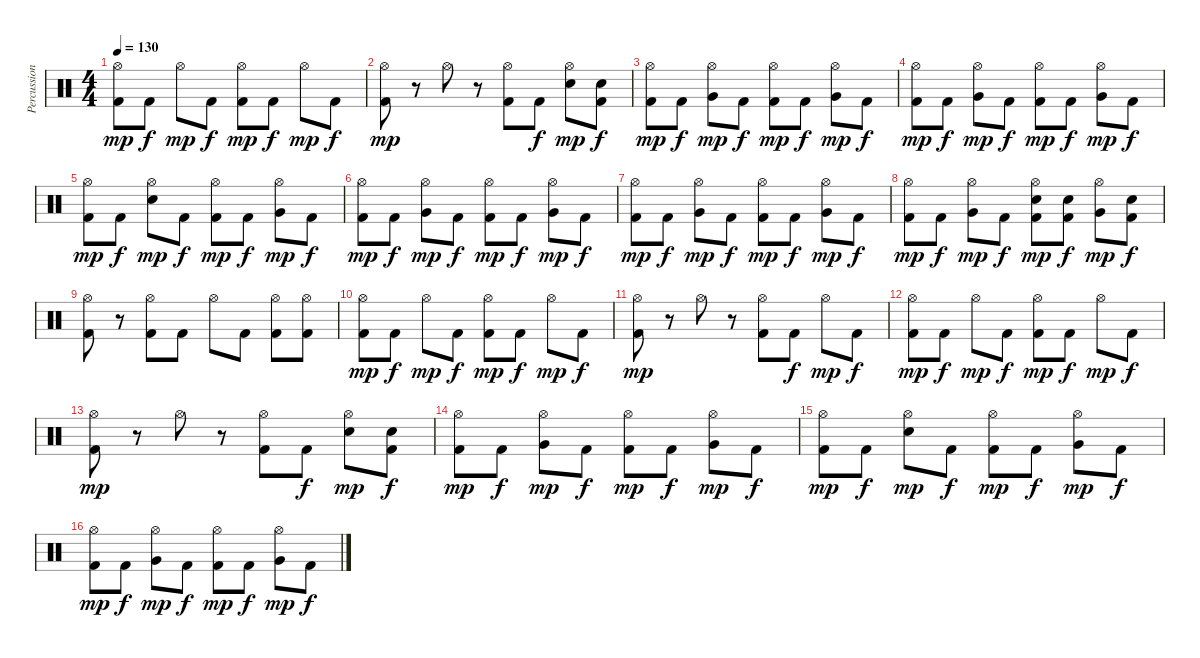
\track ("Percussions" "Percussion") {instrument percussion}
\staff {score}
\articulation defaults
\ts (4 4)
\tempo 130
\clef neutral
\ks c
("Hi-Hat (open)" "Kick (hit) 2").8{dy mp} "Kick (hit) 2".8{dy f} "Hi-Hat (open)".8{dy mp} "Kick (hit) 2".8{dy f} ("Hi-Hat (open)" "Kick (hit) 2").8{dy mp} "Kick (hit) 2".8{dy f} "Hi-Hat (open)".8{dy mp} "Kick (hit) 2".8{dy f} |
("Hi-Hat (open)" "Kick (hit) 2").8{dy mp} r.8 "Hi-Hat (open)".8 r.8 ("Hi-Hat (open)" "Kick (hit) 2").8 "Kick (hit) 2".8{dy f} ("Hi-Hat (open)" "Snare (hit) 2").8{dy mp} ("Snare (hit) 2" "Kick (hit) 2").8{dy f} |
("Hi-Hat (open)" "Kick (hit) 2").8{dy mp} "Kick (hit) 2".8{dy f} ("Hi-Hat (open)" "Very Low Tom (hit)").8{dy mp} "Kick (hit) 2".8{dy f} ("Hi-Hat (open)" "Kick (hit) 2").8{dy mp} "Kick (hit) 2".8{dy f} ("Hi-Hat (open)" "Very Low Tom (hit)").8{dy mp} "Kick (hit) 2".8{dy f} |
("Hi-Hat (open)" "Kick (hit) 2").8{dy mp} "Kick (hit) 2".8{dy f} ("Hi-Hat (open)" "Very Low Tom (hit)").8{dy mp} "Kick (hit) 2".8{dy f} ("Hi-Hat (open)" "Kick (hit) 2").8{dy mp} "Kick (hit) 2".8{dy f} ("Hi-Hat (open)" "Very Low Tom (hit)").8{dy mp} "Kick (hit) 2".8{dy f} |
("Hi-Hat (open)" "Kick (hit) 2").8{dy mp} "Kick (hit) 2".8{dy f} ("Hi-Hat (open)" "Snare (hit) 2").8{dy mp} "Kick (hit) 2".8{dy f} ("Hi-Hat (open)" "Kick (hit) 2").8{dy mp} "Kick (hit) 2".8{dy f} ("Hi-Hat (open)" "Very Low Tom (hit)").8{dy mp} "Kick (hit) 2".8{dy f} |
("Hi-Hat (open)" "Kick (hit) 2").8{dy mp} "Kick (hit) 2".8{dy f} ("Hi-Hat (open)" "Very Low Tom (hit)").8{dy mp} "Kick (hit) 2".8{dy f} ("Hi-Hat (open)" "Kick (hit) 2").8{dy mp} "Kick (hit) 2".8{dy f} ("Hi-Hat (open)" "Very Low Tom (hit)").8{dy mp} "Kick (hit) 2".8{dy f} |
("Hi-Hat (open)" "Kick (hit) 2").8{dy mp} "Kick (hit) 2".8{dy f} ("Hi-Hat (open)" "Very Low Tom (hit)").8{dy mp} "Kick (hit) 2".8{dy f} ("Hi-Hat (open)" "Kick (hit) 2").8{dy mp} "Kick (hit) 2".8{dy f} ("Hi-Hat (open)" "Very Low Tom (hit)").8{dy mp} "Kick (hit) 2".8{dy f} |
("Hi-Hat (open)" "Kick (hit) 2").8{dy mp} "Kick (hit) 2".8{dy f} ("Hi-Hat (open)" "Very Low Tom (hit)").8{dy mp} "Kick (hit) 2".8{dy f} ("Hi-Hat (open)" "Snare (hit) 2" "Kick (hit) 2").8{dy mp} ("Snare (hit) 2" "Kick (hit) 2").8{dy f} ("Hi-Hat (open)" "Very Low Tom (hit)").8{dy mp} ("Snare (hit) 2" "Kick (hit) 2").8{dy f} |
("Hi-Hat (open)" "Kick (hit) 2").8 r.8 ("Hi-Hat (open)" "Kick (hit) 2").8 "Kick (hit) 2".8 "Hi-Hat (open)".8 "Kick (hit) 2".8 ("Hi-Hat (open)" "Kick (hit) 2").8 ("Hi-Hat (open)" "Kick (hit) 2").8 |
("Hi-Hat (open)" "Kick (hit) 2").8{dy mp} "Kick (hit) 2".8{dy f} "Hi-Hat (open)".8{dy mp} "Kick (hit) 2".8{dy f} ("Hi-Hat (open)" "Kick (hit) 2").8{dy mp} "Kick (hit) 2".8{dy f} "Hi-Hat (open)".8{dy mp} "Kick (hit) 2".8{dy f} |
("Hi-Hat (open)" "Kick (hit) 2").8{dy mp} r.8 "Hi-Hat (open)".8 r.8 ("Hi-Hat (open)" "Kick (hit) 2").8 "Kick (hit) 2".8{dy f} "Hi-Hat (open)".8{dy mp} "Kick (hit) 2".8{dy f} |
("Hi-Hat (open)" "Kick (hit) 2").8{dy mp} "Kick (hit) 2".8{dy f} "Hi-Hat (open)".8{dy mp} "Kick (hit) 2".8{dy f} ("Hi-Hat (open)" "Kick (hit) 2").8{dy mp} "Kick (hit) 2".8{dy f} "Hi-Hat (open)".8{dy mp} "Kick (hit) 2".8{dy f} |
("Hi-Hat (open)" "Kick (hit) 2").8{dy mp} r.8 "Hi-Hat (open)".8 r.8 ("Hi-Hat (open)" "Kick (hit) 2").8 "Kick (hit) 2".8{dy f} ("Hi-Hat (open)" "Snare (hit) 2").8{dy mp} ("Snare (hit) 2" "Kick (hit) 2").8{dy f} |
("Hi-Hat (open)" "Kick (hit) 2").8{dy mp} "Kick (hit) 2".8{dy f} ("Hi-Hat (open)" "Very Low Tom (hit)").8{dy mp} "Kick (hit) 2".8{dy f} ("Hi-Hat (open)" "Kick (hit) 2").8{dy mp} "Kick (hit) 2".8{dy f} ("Hi-Hat (open)" "Very Low Tom (hit)").8{dy mp} "Kick (hit) 2".8{dy f} |
("Hi-Hat (open)" "Kick (hit) 2").8{dy mp} "Kick (hit) 2".8{dy f} ("Hi-Hat (open)" "Snare (hit) 2").8{dy mp} "Kick (hit) 2".8{dy f} ("Hi-Hat (open)" "Kick (hit) 2").8{dy mp} "Kick (hit) 2".8{dy f} ("Hi-Hat (open)" "Very Low Tom (hit)").8{dy mp} "Kick (hit) 2".8{dy f} |
("Hi-Hat (open)" "Kick (hit) 2").8{dy mp} "Kick (hit) 2".8{dy f} ("Hi-Hat (open)" "Very Low Tom (hit)").8{dy mp} "Kick (hit) 2".8{dy f} ("Hi-Hat (open)" "Kick (hit) 2").8{dy mp} "Kick (hit) 2".8{dy f} ("Hi-Hat (open)" "Very Low Tom (hit)").8{dy mp} "Kick (hit) 2".8{dy f}
